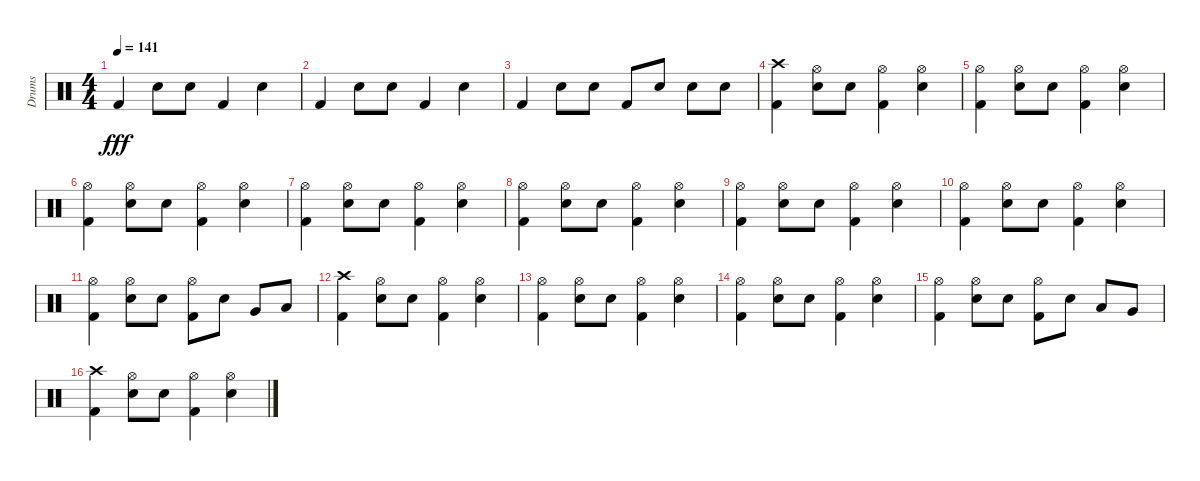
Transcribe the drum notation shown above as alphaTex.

\track ("Drums" "Drums") {instrument percussion}
\staff {score}
\articulation defaults
\ts (4 4)
\tempo 141
\clef neutral
\ks c "Kick (hit) 2".4{dy fff} "Electric Snare (hit)".8 "Electric Snare (hit)".8 "Kick (hit) 2".4 "Electric Snare (hit)".4
|
"Kick (hit) 2".4 "Electric Snare (hit)".8 "Electric Snare (hit)".8 "Kick (hit) 2".4 "Electric Snare (hit)".4 |
"Kick (hit) 2".4 "Electric Snare (hit)".8 "Electric Snare (hit)".8 "Kick (hit) 2".8 "Electric Snare (hit)".8 "Electric Snare (hit)".8 "Electric Snare (hit)".8 |
("Crash high (hit)" "Kick (hit) 2").4 ("Hi-Hat (open)" "Electric Snare (hit)").8 "Electric Snare (hit)".8 ("Hi-Hat (open)" "Kick (hit) 2").4 ("Hi-Hat (open)" "Electric Snare (hit)").4 |
("Hi-Hat (open)" "Kick (hit) 2").4 ("Hi-Hat (open)" "Electric Snare (hit)").8 "Electric Snare (hit)".8 ("Hi-Hat (open)" "Kick (hit) 2").4 ("Hi-Hat (open)" "Electric Snare (hit)").4 |
("Hi-Hat (open)" "Kick (hit) 2").4 ("Hi-Hat (open)" "Electric Snare (hit)").8 "Electric Snare (hit)".8 ("Hi-Hat (open)" "Kick (hit) 2").4 ("Hi-Hat (open)" "Electric Snare (hit)").4 |
("Hi-Hat (open)" "Kick (hit) 2").4 ("Hi-Hat (open)" "Electric Snare (hit)").8 "Electric Snare (hit)".8 ("Hi-Hat (open)" "Kick (hit) 2").4 ("Hi-Hat (open)" "Electric Snare (hit)").4 |
("Hi-Hat (open)" "Kick (hit) 2").4 ("Hi-Hat (open)" "Electric Snare (hit)").8 "Electric Snare (hit)".8 ("Hi-Hat (open)" "Kick (hit) 2").4 ("Hi-Hat (open)" "Electric Snare (hit)").4 |
("Hi-Hat (open)" "Kick (hit) 2").4 ("Hi-Hat (open)" "Electric Snare (hit)").8 "Electric Snare (hit)".8 ("Hi-Hat (open)" "Kick (hit) 2").4 ("Hi-Hat (open)" "Electric Snare (hit)").4 |
("Hi-Hat (open)" "Kick (hit) 2").4 ("Hi-Hat (open)" "Electric Snare (hit)").8 "Electric Snare (hit)".8 ("Hi-Hat (open)" "Kick (hit) 2").4 ("Hi-Hat (open)" "Electric Snare (hit)").4 |
("Hi-Hat (open)" "Kick (hit) 2").4 ("Hi-Hat (open)" "Electric Snare (hit)").8 "Electric Snare (hit)".8 ("Hi-Hat (open)" "Kick (hit) 2").8 "Electric Snare (hit)".8 "Very Low Tom (hit)".8 "Low Floor Tom (hit)".8 |
("Crash high (hit)" "Kick (hit) 2").4 ("Hi-Hat (open)" "Electric Snare (hit)").8 "Electric Snare (hit)".8 ("Hi-Hat (open)" "Kick (hit) 2").4 ("Hi-Hat (open)" "Electric Snare (hit)").4 |
("Hi-Hat (open)" "Kick (hit) 2").4 ("Hi-Hat (open)" "Electric Snare (hit)").8 "Electric Snare (hit)".8 ("Hi-Hat (open)" "Kick (hit) 2").4 ("Hi-Hat (open)" "Electric Snare (hit)").4 |
("Hi-Hat (open)" "Kick (hit) 2").4 ("Hi-Hat (open)" "Electric Snare (hit)").8 "Electric Snare (hit)".8 ("Hi-Hat (open)" "Kick (hit) 2").4 ("Hi-Hat (open)" "Electric Snare (hit)").4 |
("Hi-Hat (open)" "Kick (hit) 2").4 ("Hi-Hat (open)" "Electric Snare (hit)").8 "Electric Snare (hit)".8 ("Hi-Hat (open)" "Kick (hit) 2").8 "Electric Snare (hit)".8 "Low Tom (hit)".8 "Very Low Tom (hit)".8 |
("Crash high (hit)" "Kick (hit) 2").4 ("Hi-Hat (open)" "Electric Snare (hit)").8 "Electric Snare (hit)".8 ("Hi-Hat (open)" "Kick (hit) 2").4 ("Hi-Hat (open)" "Electric Snare (hit)").4
